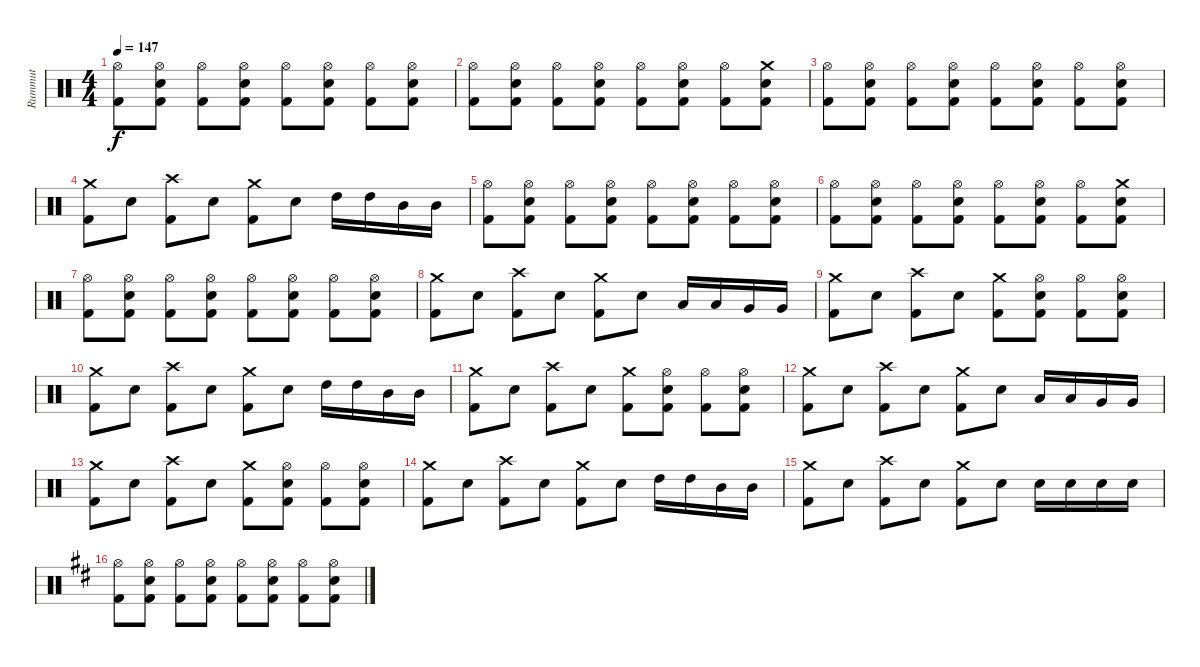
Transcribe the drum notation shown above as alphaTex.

\track ("Rummut" "Rummut") {instrument percussion}
\staff {score}
\articulation defaults
\ts (4 4)
\tempo 147
\clef neutral
\ks c
("Hi-Hat (open)" "Kick (hit) 2").8{dy f} ("Hi-Hat (open)" "Electric Snare (hit)" "Kick (hit) 2").8 ("Hi-Hat (open)" "Kick (hit) 2").8 ("Hi-Hat (open)" "Electric Snare (hit)" "Kick (hit) 2").8 ("Hi-Hat (open)" "Kick (hit) 2").8 ("Hi-Hat (open)" "Electric Snare (hit)" "Kick (hit) 2").8 ("Hi-Hat (open)" "Kick (hit) 2").8 ("Hi-Hat (open)" "Electric Snare (hit)" "Kick (hit) 2").8 |
("Hi-Hat (open)" "Kick (hit) 2").8 ("Hi-Hat (open)" "Electric Snare (hit)" "Kick (hit) 2").8 ("Hi-Hat (open)" "Kick (hit) 2").8 ("Hi-Hat (open)" "Electric Snare (hit)" "Kick (hit) 2").8 ("Hi-Hat (open)" "Kick (hit) 2").8 ("Hi-Hat (open)" "Electric Snare (hit)" "Kick (hit) 2").8 ("Hi-Hat (open)" "Kick (hit) 2").8 ("Crash medium (hit)" "Electric Snare (hit)" "Kick (hit) 2").8 |
("Hi-Hat (open)" "Kick (hit) 2").8 ("Hi-Hat (open)" "Electric Snare (hit)" "Kick (hit) 2").8 ("Hi-Hat (open)" "Kick (hit) 2").8 ("Hi-Hat (open)" "Electric Snare (hit)" "Kick (hit) 2").8 ("Hi-Hat (open)" "Kick (hit) 2").8 ("Hi-Hat (open)" "Electric Snare (hit)" "Kick (hit) 2").8 ("Hi-Hat (open)" "Kick (hit) 2").8 ("Hi-Hat (open)" "Electric Snare (hit)" "Kick (hit) 2").8 |
("Crash medium (hit)" "Kick (hit) 2").8 "Electric Snare (hit)".8 ("Crash high (hit)" "Kick (hit) 2").8 "Electric Snare (hit)".8 ("Crash medium (hit)" "Kick (hit) 2").8 "Electric Snare (hit)".8 "High Tom (hit)".16 "High Tom (hit)".16 "Mid Tom (hit)".16 "Mid Tom (hit)".16 |
("Hi-Hat (open)" "Kick (hit) 2").8 ("Hi-Hat (open)" "Electric Snare (hit)" "Kick (hit) 2").8 ("Hi-Hat (open)" "Kick (hit) 2").8 ("Hi-Hat (open)" "Electric Snare (hit)" "Kick (hit) 2").8 ("Hi-Hat (open)" "Kick (hit) 2").8 ("Hi-Hat (open)" "Electric Snare (hit)" "Kick (hit) 2").8 ("Hi-Hat (open)" "Kick (hit) 2").8 ("Hi-Hat (open)" "Electric Snare (hit)" "Kick (hit) 2").8 |
("Hi-Hat (open)" "Kick (hit) 2").8 ("Hi-Hat (open)" "Electric Snare (hit)" "Kick (hit) 2").8 ("Hi-Hat (open)" "Kick (hit) 2").8 ("Hi-Hat (open)" "Electric Snare (hit)" "Kick (hit) 2").8 ("Hi-Hat (open)" "Kick (hit) 2").8 ("Hi-Hat (open)" "Electric Snare (hit)" "Kick (hit) 2").8 ("Hi-Hat (open)" "Kick (hit) 2").8 ("Crash medium (hit)" "Electric Snare (hit)" "Kick (hit) 2").8 |
("Hi-Hat (open)" "Kick (hit) 2").8 ("Hi-Hat (open)" "Electric Snare (hit)" "Kick (hit) 2").8 ("Hi-Hat (open)" "Kick (hit) 2").8 ("Hi-Hat (open)" "Electric Snare (hit)" "Kick (hit) 2").8 ("Hi-Hat (open)" "Kick (hit) 2").8 ("Hi-Hat (open)" "Electric Snare (hit)" "Kick (hit) 2").8 ("Hi-Hat (open)" "Kick (hit) 2").8 ("Hi-Hat (open)" "Electric Snare (hit)" "Kick (hit) 2").8 |
("Crash medium (hit)" "Kick (hit) 2").8 "Electric Snare (hit)".8 ("Crash high (hit)" "Kick (hit) 2").8 "Electric Snare (hit)".8 ("Crash medium (hit)" "Kick (hit) 2").8 "Electric Snare (hit)".8 "Low Tom (hit)".16 "Low Tom (hit)".16 "Very Low Tom (hit)".16 "Very Low Tom (hit)".16 |
("Crash medium (hit)" "Kick (hit) 2").8 "Electric Snare (hit)".8 ("Crash high (hit)" "Kick (hit) 2").8 "Electric Snare (hit)".8 ("Crash medium (hit)" "Kick (hit) 2").8 ("Hi-Hat (open)" "Electric Snare (hit)" "Kick (hit) 2").8 ("Hi-Hat (open)" "Kick (hit) 2").8 ("Hi-Hat (open)" "Electric Snare (hit)" "Kick (hit) 2").8 |
("Crash medium (hit)" "Kick (hit) 2").8 "Electric Snare (hit)".8 ("Crash high (hit)" "Kick (hit) 2").8 "Electric Snare (hit)".8 ("Crash medium (hit)" "Kick (hit) 2").8 "Electric Snare (hit)".8 "High Tom (hit)".16 "High Tom (hit)".16 "Mid Tom (hit)".16 "Mid Tom (hit)".16 |
("Crash medium (hit)" "Kick (hit) 2").8 "Electric Snare (hit)".8 ("Crash high (hit)" "Kick (hit) 2").8 "Electric Snare (hit)".8 ("Crash medium (hit)" "Kick (hit) 2").8 ("Hi-Hat (open)" "Electric Snare (hit)" "Kick (hit) 2").8 ("Hi-Hat (open)" "Kick (hit) 2").8 ("Hi-Hat (open)" "Electric Snare (hit)" "Kick (hit) 2").8 |
("Crash medium (hit)" "Kick (hit) 2").8 "Electric Snare (hit)".8 ("Crash high (hit)" "Kick (hit) 2").8 "Electric Snare (hit)".8 ("Crash medium (hit)" "Kick (hit) 2").8 "Electric Snare (hit)".8 "Low Tom (hit)".16 "Low Tom (hit)".16 "Very Low Tom (hit)".16 "Very Low Tom (hit)".16 |
("Crash medium (hit)" "Kick (hit) 2").8 "Electric Snare (hit)".8 ("Crash high (hit)" "Kick (hit) 2").8 "Electric Snare (hit)".8 ("Crash medium (hit)" "Kick (hit) 2").8 ("Hi-Hat (open)" "Electric Snare (hit)" "Kick (hit) 2").8 ("Hi-Hat (open)" "Kick (hit) 2").8 ("Hi-Hat (open)" "Electric Snare (hit)" "Kick (hit) 2").8 |
("Crash medium (hit)" "Kick (hit) 2").8 "Electric Snare (hit)".8 ("Crash high (hit)" "Kick (hit) 2").8 "Electric Snare (hit)".8 ("Crash medium (hit)" "Kick (hit) 2").8 "Electric Snare (hit)".8 "High Tom (hit)".16 "High Tom (hit)".16 "Mid Tom (hit)".16 "Mid Tom (hit)".16 |
("Crash medium (hit)" "Kick (hit) 2").8 "Electric Snare (hit)".8 ("Crash high (hit)" "Kick (hit) 2").8 "Electric Snare (hit)".8 ("Crash medium (hit)" "Kick (hit) 2").8 "Electric Snare (hit)".8 "Electric Snare (hit)".16 "Electric Snare (hit)".16 "Electric Snare (hit)".16 "Electric Snare (hit)".16 |
\ks d
("Hi-Hat (open)" "Kick (hit) 2").8 ("Hi-Hat (open)" "Electric Snare (hit)" "Kick (hit) 2").8 ("Hi-Hat (open)" "Kick (hit) 2").8 ("Hi-Hat (open)" "Electric Snare (hit)" "Kick (hit) 2").8 ("Hi-Hat (open)" "Kick (hit) 2").8 ("Hi-Hat (open)" "Electric Snare (hit)" "Kick (hit) 2").8 ("Hi-Hat (open)" "Kick (hit) 2").8 ("Hi-Hat (open)" "Electric Snare (hit)" "Kick (hit) 2").8
